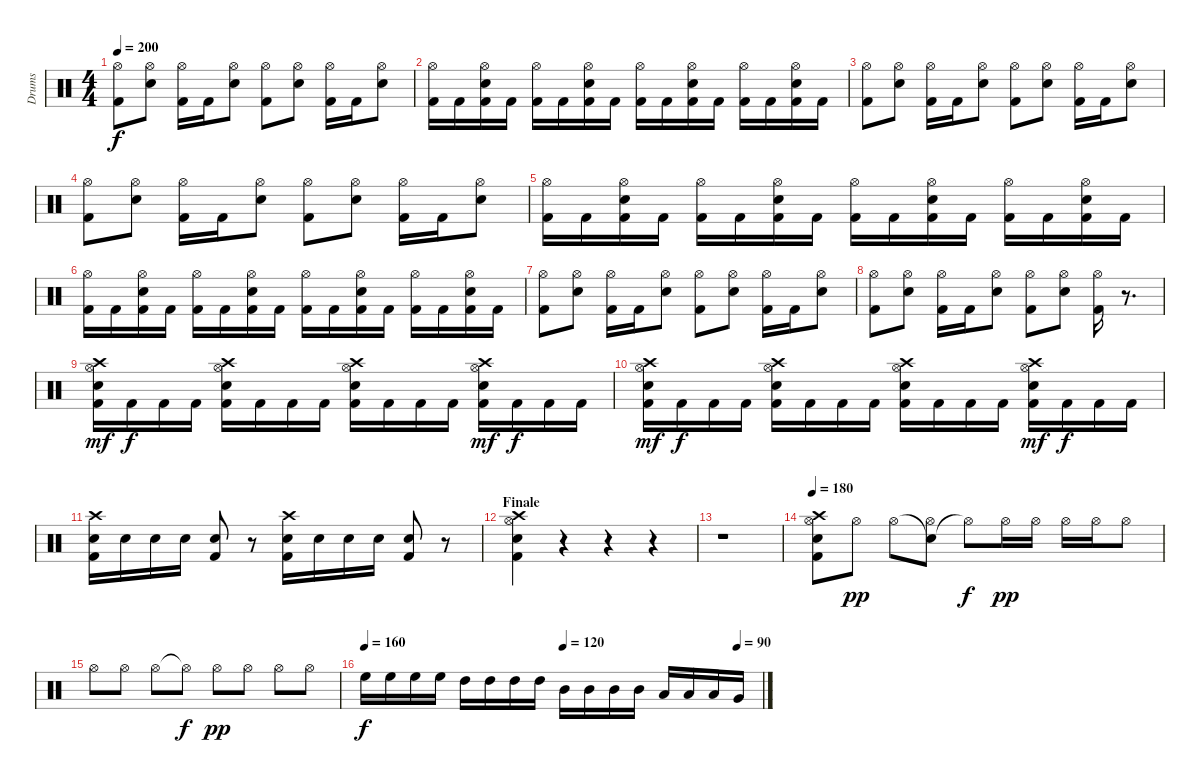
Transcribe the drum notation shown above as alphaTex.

\track ("Drums" "Drums") {instrument percussion}
\staff {score}
\articulation defaults
\ts (4 4)
\tempo 200
\clef neutral
\ks c
("Hi-Hat (open)" "Kick (hit) 2").8{dy f} ("Hi-Hat (open)" "Snare (hit) 2").8 ("Hi-Hat (open)" "Kick (hit) 2").16 "Kick (hit) 2".16 ("Hi-Hat (open)" "Snare (hit) 2").8 ("Hi-Hat (open)" "Kick (hit) 2").8 ("Hi-Hat (open)" "Snare (hit) 2").8 ("Hi-Hat (open)" "Kick (hit) 2").16 "Kick (hit) 2".16 ("Hi-Hat (open)" "Snare (hit) 2").8 |
("Hi-Hat (open)" "Kick (hit) 2").16 "Kick (hit) 2".16 ("Hi-Hat (open)" "Snare (hit) 2" "Kick (hit) 2").16 "Kick (hit) 2".16 ("Hi-Hat (open)" "Kick (hit) 2").16 "Kick (hit) 2".16 ("Hi-Hat (open)" "Snare (hit) 2" "Kick (hit) 2").16 "Kick (hit) 2".16 ("Hi-Hat (open)" "Kick (hit) 2").16 "Kick (hit) 2".16 ("Hi-Hat (open)" "Snare (hit) 2" "Kick (hit) 2").16 "Kick (hit) 2".16 ("Hi-Hat (open)" "Kick (hit) 2").16 "Kick (hit) 2".16 ("Hi-Hat (open)" "Snare (hit) 2" "Kick (hit) 2").16 "Kick (hit) 2".16 |
("Hi-Hat (open)" "Kick (hit) 2").8 ("Hi-Hat (open)" "Snare (hit) 2").8 ("Hi-Hat (open)" "Kick (hit) 2").16 "Kick (hit) 2".16 ("Hi-Hat (open)" "Snare (hit) 2").8 ("Hi-Hat (open)" "Kick (hit) 2").8 ("Hi-Hat (open)" "Snare (hit) 2").8 ("Hi-Hat (open)" "Kick (hit) 2").16 "Kick (hit) 2".16 ("Hi-Hat (open)" "Snare (hit) 2").8 |
("Hi-Hat (open)" "Kick (hit) 2").8 ("Hi-Hat (open)" "Snare (hit) 2").8 ("Hi-Hat (open)" "Kick (hit) 2").16 "Kick (hit) 2".16 ("Hi-Hat (open)" "Snare (hit) 2").8 ("Hi-Hat (open)" "Kick (hit) 2").8 ("Hi-Hat (open)" "Snare (hit) 2").8 ("Hi-Hat (open)" "Kick (hit) 2").16 "Kick (hit) 2".16 ("Hi-Hat (open)" "Snare (hit) 2").8 |
("Hi-Hat (open)" "Kick (hit) 2").16 "Kick (hit) 2".16 ("Hi-Hat (open)" "Snare (hit) 2" "Kick (hit) 2").16 "Kick (hit) 2".16 ("Hi-Hat (open)" "Kick (hit) 2").16 "Kick (hit) 2".16 ("Hi-Hat (open)" "Snare (hit) 2" "Kick (hit) 2").16 "Kick (hit) 2".16 ("Hi-Hat (open)" "Kick (hit) 2").16 "Kick (hit) 2".16 ("Hi-Hat (open)" "Snare (hit) 2" "Kick (hit) 2").16 "Kick (hit) 2".16 ("Hi-Hat (open)" "Kick (hit) 2").16 "Kick (hit) 2".16 ("Hi-Hat (open)" "Snare (hit) 2" "Kick (hit) 2").16 "Kick (hit) 2".16 |
("Hi-Hat (open)" "Kick (hit) 2").16 "Kick (hit) 2".16 ("Hi-Hat (open)" "Snare (hit) 2" "Kick (hit) 2").16 "Kick (hit) 2".16 ("Hi-Hat (open)" "Kick (hit) 2").16 "Kick (hit) 2".16 ("Hi-Hat (open)" "Snare (hit) 2" "Kick (hit) 2").16 "Kick (hit) 2".16 ("Hi-Hat (open)" "Kick (hit) 2").16 "Kick (hit) 2".16 ("Hi-Hat (open)" "Snare (hit) 2" "Kick (hit) 2").16 "Kick (hit) 2".16 ("Hi-Hat (open)" "Kick (hit) 2").16 "Kick (hit) 2".16 ("Hi-Hat (open)" "Snare (hit) 2" "Kick (hit) 2").16 "Kick (hit) 2".16 |
("Hi-Hat (open)" "Kick (hit) 2").8 ("Hi-Hat (open)" "Snare (hit) 2").8 ("Hi-Hat (open)" "Kick (hit) 2").16 "Kick (hit) 2".16 ("Hi-Hat (open)" "Snare (hit) 2").8 ("Hi-Hat (open)" "Kick (hit) 2").8 ("Hi-Hat (open)" "Snare (hit) 2").8 ("Hi-Hat (open)" "Kick (hit) 2").16 "Kick (hit) 2".16 ("Hi-Hat (open)" "Snare (hit) 2").8 |
("Hi-Hat (open)" "Kick (hit) 2").8 ("Hi-Hat (open)" "Snare (hit) 2").8 ("Hi-Hat (open)" "Kick (hit) 2").16 "Kick (hit) 2".16 ("Hi-Hat (open)" "Snare (hit) 2").8 ("Hi-Hat (open)" "Kick (hit) 2").8 ("Hi-Hat (open)" "Snare (hit) 2").8 ("Hi-Hat (open)" "Kick (hit) 2").16 r.8{d} |
("Crash high (hit)" "Hi-Hat (open)" "Snare (hit) 2" "Kick (hit) 2").16{dy mf} "Kick (hit) 2".16{dy f} "Kick (hit) 2".16 "Kick (hit) 2".16 ("Crash high (hit)" "Hi-Hat (open)" "Snare (hit) 2" "Kick (hit) 2").16 "Kick (hit) 2".16 "Kick (hit) 2".16 "Kick (hit) 2".16 ("Crash high (hit)" "Hi-Hat (open)" "Snare (hit) 2" "Kick (hit) 2").16 "Kick (hit) 2".16 "Kick (hit) 2".16 "Kick (hit) 2".16 ("Crash high (hit)" "Hi-Hat (open)" "Snare (hit) 2" "Kick (hit) 2").16{dy mf} "Kick (hit) 2".16{dy f} "Kick (hit) 2".16 "Kick (hit) 2".16 |
("Crash high (hit)" "Hi-Hat (open)" "Snare (hit) 2" "Kick (hit) 2").16{dy mf} "Kick (hit) 2".16{dy f} "Kick (hit) 2".16 "Kick (hit) 2".16 ("Crash high (hit)" "Hi-Hat (open)" "Snare (hit) 2" "Kick (hit) 2").16 "Kick (hit) 2".16 "Kick (hit) 2".16 "Kick (hit) 2".16 ("Crash high (hit)" "Hi-Hat (open)" "Snare (hit) 2" "Kick (hit) 2").16 "Kick (hit) 2".16 "Kick (hit) 2".16 "Kick (hit) 2".16 ("Crash high (hit)" "Hi-Hat (open)" "Snare (hit) 2" "Kick (hit) 2").16{dy mf} "Kick (hit) 2".16{dy f} "Kick (hit) 2".16 "Kick (hit) 2".16 |
("Crash high (hit)" "Snare (hit) 2" "Kick (hit) 2").16 "Snare (hit) 2".16 "Snare (hit) 2".16 "Snare (hit) 2".16 ("Snare (hit) 2" "Kick (hit) 2").8 r.8 ("Crash high (hit)" "Snare (hit) 2" "Kick (hit) 2").16 "Snare (hit) 2".16 "Snare (hit) 2".16 "Snare (hit) 2".16 ("Snare (hit) 2" "Kick (hit) 2").8 r.8 |
\section ("" "Finale")
("Crash high (hit)" "Hi-Hat (open)" "Snare (hit) 2" "Kick (hit) 2").4 r.4 r.4 r.4 |
r.1 |
\tempo 180
("Crash high (hit)" "Hi-Hat (open)" "Snare (hit) 2" "Kick (hit) 2").8 "Hi-Hat (open)".8{dy pp} "Hi-Hat (open)".8 ("Snare (hit)"{t} "Hi-Hat (open)").8 "Hi-Hat (open)"{t}.8{dy f} "Hi-Hat (open)".16{dy pp} "Hi-Hat (open)".16 "Hi-Hat (open)".16 "Hi-Hat (open)".16 "Hi-Hat (open)".8 |
"Hi-Hat (open)".8 "Hi-Hat (open)".8 "Hi-Hat (open)".8 "Hi-Hat (open)"{t}.8{dy f} "Hi-Hat (open)".8{dy pp} "Hi-Hat (open)".8 "Hi-Hat (open)".8 "Hi-Hat (open)".8 |
\tempo 160
\tempo (120 0.5)
\tempo (90 0.9375)
"High Floor Tom (hit)".16{dy f} "High Floor Tom (hit)".16 "High Floor Tom (hit)".16 "High Floor Tom (hit)".16 "High Tom (hit)".16 "High Tom (hit)".16 "High Tom (hit)".16 "High Tom (hit)".16 "Mid Tom (hit)".16 "Mid Tom (hit)".16 "Mid Tom (hit)".16 "Mid Tom (hit)".16 "Low Tom (hit)".16 "Low Tom (hit)".16 "Low Tom (hit)".16 "Very Low Tom (hit)".16
